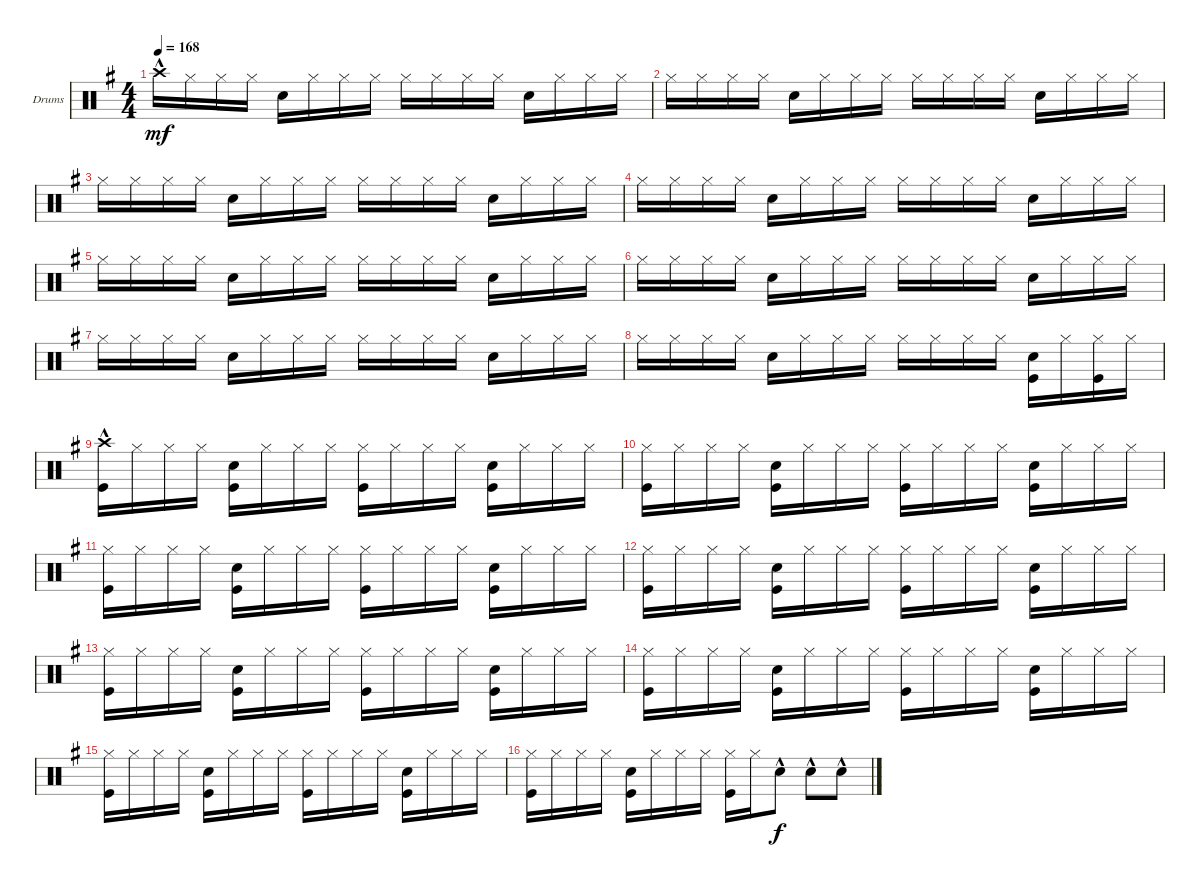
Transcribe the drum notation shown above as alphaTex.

\defaultSystemsLayout 4
\bracketExtendMode groupsimilarinstruments
\firstSystemTrackNameOrientation horizontal
\otherSystemsTrackNameOrientation horizontal
\track ("Drumkit" "Drums") {instrument percussion}
\staff {score}
\articulation defaults
\ts (4 4)
\scale
0.325926
\tempo 168
\accidentals auto
\clef neutral
\ottava regular
\simile none
\ks eminor "Crash high (hit)"{hac}.16{dy mf} "Hi-Hat (closed)".16 "Hi-Hat (closed)".16 "Hi-Hat (closed)".16 "Snare (hit) 2".16 "Hi-Hat (closed)".16 "Hi-Hat (closed)".16 "Hi-Hat (closed)".16 "Hi-Hat (closed)".16 "Hi-Hat (closed)".16 "Hi-Hat (closed)".16 "Hi-Hat (closed)".16 "Snare (hit) 2".16 "Hi-Hat (closed)".16 "Hi-Hat (closed)".16 "Hi-Hat (closed)".16
|
\scale
0.396821 "Hi-Hat (closed)".16 "Hi-Hat (closed)".16 "Hi-Hat (closed)".16 "Hi-Hat (closed)".16 "Snare (hit) 2".16 "Hi-Hat (closed)".16 "Hi-Hat (closed)".16 "Hi-Hat (closed)".16 "Hi-Hat (closed)".16 "Hi-Hat (closed)".16 "Hi-Hat (closed)".16 "Hi-Hat (closed)".16 "Snare (hit) 2".16 "Hi-Hat (closed)".16 "Hi-Hat (closed)".16 "Hi-Hat (closed)".16 |
\scale
0.185363 "Hi-Hat (closed)".16 "Hi-Hat (closed)".16 "Hi-Hat (closed)".16 "Hi-Hat (closed)".16 "Snare (hit) 2".16 "Hi-Hat (closed)".16 "Hi-Hat (closed)".16 "Hi-Hat (closed)".16 "Hi-Hat (closed)".16 "Hi-Hat (closed)".16 "Hi-Hat (closed)".16 "Hi-Hat (closed)".16 "Snare (hit) 2".16 "Hi-Hat (closed)".16 "Hi-Hat (closed)".16 "Hi-Hat (closed)".16 |
\scale
0.0918519 "Hi-Hat (closed)".16 "Hi-Hat (closed)".16 "Hi-Hat (closed)".16 "Hi-Hat (closed)".16 "Snare (hit) 2".16 "Hi-Hat (closed)".16 "Hi-Hat (closed)".16 "Hi-Hat (closed)".16 "Hi-Hat (closed)".16 "Hi-Hat (closed)".16 "Hi-Hat (closed)".16 "Hi-Hat (closed)".16 "Snare (hit) 2".16 "Hi-Hat (closed)".16 "Hi-Hat (closed)".16 "Hi-Hat (closed)".16 |
"Hi-Hat (closed)".16 "Hi-Hat (closed)".16 "Hi-Hat (closed)".16 "Hi-Hat (closed)".16 "Snare (hit) 2".16 "Hi-Hat (closed)".16 "Hi-Hat (closed)".16 "Hi-Hat (closed)".16 "Hi-Hat (closed)".16 "Hi-Hat (closed)".16 "Hi-Hat (closed)".16 "Hi-Hat (closed)".16 "Snare (hit) 2".16 "Hi-Hat (closed)".16 "Hi-Hat (closed)".16 "Hi-Hat (closed)".16 |
"Hi-Hat (closed)".16 "Hi-Hat (closed)".16 "Hi-Hat (closed)".16 "Hi-Hat (closed)".16 "Snare (hit) 2".16 "Hi-Hat (closed)".16 "Hi-Hat (closed)".16 "Hi-Hat (closed)".16 "Hi-Hat (closed)".16 "Hi-Hat (closed)".16 "Hi-Hat (closed)".16 "Hi-Hat (closed)".16 "Snare (hit) 2".16 "Hi-Hat (closed)".16 "Hi-Hat (closed)".16 "Hi-Hat (closed)".16 |
"Hi-Hat (closed)".16 "Hi-Hat (closed)".16 "Hi-Hat (closed)".16 "Hi-Hat (closed)".16 "Snare (hit) 2".16 "Hi-Hat (closed)".16 "Hi-Hat (closed)".16 "Hi-Hat (closed)".16 "Hi-Hat (closed)".16 "Hi-Hat (closed)".16 "Hi-Hat (closed)".16 "Hi-Hat (closed)".16 "Snare (hit) 2".16 "Hi-Hat (closed)".16 "Hi-Hat (closed)".16 "Hi-Hat (closed)".16 |
"Hi-Hat (closed)".16 "Hi-Hat (closed)".16 "Hi-Hat (closed)".16 "Hi-Hat (closed)".16 "Snare (hit) 2".16 "Hi-Hat (closed)".16 "Hi-Hat (closed)".16 "Hi-Hat (closed)".16 "Hi-Hat (closed)".16 "Hi-Hat (closed)".16 "Hi-Hat (closed)".16 "Hi-Hat (closed)".16 ("Snare (hit) 2" "Kick (hit)").16 "Hi-Hat (closed)".16 ("Hi-Hat (closed)" "Kick (hit)").16 "Hi-Hat (closed)".16 |
("Crash high (hit)"{hac} "Kick (hit)").16 "Hi-Hat (closed)".16 "Hi-Hat (closed)".16 "Hi-Hat (closed)".16 ("Snare (hit) 2" "Kick (hit)").16 "Hi-Hat (closed)".16 "Hi-Hat (closed)".16 "Hi-Hat (closed)".16 ("Hi-Hat (closed)" "Kick (hit)").16 "Hi-Hat (closed)".16 "Hi-Hat (closed)".16 "Hi-Hat (closed)".16 ("Snare (hit) 2" "Kick (hit)").16 "Hi-Hat (closed)".16 "Hi-Hat (closed)".16 "Hi-Hat (closed)".16 |
("Hi-Hat (closed)" "Kick (hit)").16 "Hi-Hat (closed)".16 "Hi-Hat (closed)".16 "Hi-Hat (closed)".16 ("Snare (hit) 2" "Kick (hit)").16 "Hi-Hat (closed)".16 "Hi-Hat (closed)".16 "Hi-Hat (closed)".16 ("Hi-Hat (closed)" "Kick (hit)").16 "Hi-Hat (closed)".16 "Hi-Hat (closed)".16 "Hi-Hat (closed)".16 ("Snare (hit) 2" "Kick (hit)").16 "Hi-Hat (closed)".16 "Hi-Hat (closed)".16 "Hi-Hat (closed)".16 |
("Hi-Hat (closed)" "Kick (hit)").16 "Hi-Hat (closed)".16 "Hi-Hat (closed)".16 "Hi-Hat (closed)".16 ("Snare (hit) 2" "Kick (hit)").16 "Hi-Hat (closed)".16 "Hi-Hat (closed)".16 "Hi-Hat (closed)".16 ("Hi-Hat (closed)" "Kick (hit)").16 "Hi-Hat (closed)".16 "Hi-Hat (closed)".16 "Hi-Hat (closed)".16 ("Snare (hit) 2" "Kick (hit)").16 "Hi-Hat (closed)".16 "Hi-Hat (closed)".16 "Hi-Hat (closed)".16 |
("Hi-Hat (closed)" "Kick (hit)").16 "Hi-Hat (closed)".16 "Hi-Hat (closed)".16 "Hi-Hat (closed)".16 ("Snare (hit) 2" "Kick (hit)").16 "Hi-Hat (closed)".16 "Hi-Hat (closed)".16 "Hi-Hat (closed)".16 ("Hi-Hat (closed)" "Kick (hit)").16 "Hi-Hat (closed)".16 "Hi-Hat (closed)".16 "Hi-Hat (closed)".16 ("Snare (hit) 2" "Kick (hit)").16 "Hi-Hat (closed)".16 "Hi-Hat (closed)".16 "Hi-Hat (closed)".16 |
("Hi-Hat (closed)" "Kick (hit)").16 "Hi-Hat (closed)".16 "Hi-Hat (closed)".16 "Hi-Hat (closed)".16 ("Snare (hit) 2" "Kick (hit)").16 "Hi-Hat (closed)".16 "Hi-Hat (closed)".16 "Hi-Hat (closed)".16 ("Hi-Hat (closed)" "Kick (hit)").16 "Hi-Hat (closed)".16 "Hi-Hat (closed)".16 "Hi-Hat (closed)".16 ("Snare (hit) 2" "Kick (hit)").16 "Hi-Hat (closed)".16 "Hi-Hat (closed)".16 "Hi-Hat (closed)".16 |
("Hi-Hat (closed)" "Kick (hit)").16 "Hi-Hat (closed)".16 "Hi-Hat (closed)".16 "Hi-Hat (closed)".16 ("Snare (hit) 2" "Kick (hit)").16 "Hi-Hat (closed)".16 "Hi-Hat (closed)".16 "Hi-Hat (closed)".16 ("Hi-Hat (closed)" "Kick (hit)").16 "Hi-Hat (closed)".16 "Hi-Hat (closed)".16 "Hi-Hat (closed)".16 ("Snare (hit) 2" "Kick (hit)").16 "Hi-Hat (closed)".16 "Hi-Hat (closed)".16 "Hi-Hat (closed)".16 |
("Hi-Hat (closed)" "Kick (hit)").16 "Hi-Hat (closed)".16 "Hi-Hat (closed)".16 "Hi-Hat (closed)".16 ("Snare (hit) 2" "Kick (hit)").16 "Hi-Hat (closed)".16 "Hi-Hat (closed)".16 "Hi-Hat (closed)".16 ("Hi-Hat (closed)" "Kick (hit)").16 "Hi-Hat (closed)".16 "Hi-Hat (closed)".16 "Hi-Hat (closed)".16 ("Snare (hit) 2" "Kick (hit)").16 "Hi-Hat (closed)".16 "Hi-Hat (closed)".16 "Hi-Hat (closed)".16 |
("Hi-Hat (closed)" "Kick (hit)").16 "Hi-Hat (closed)".16 "Hi-Hat (closed)".16 "Hi-Hat (closed)".16 ("Snare (hit) 2" "Kick (hit)").16 "Hi-Hat (closed)".16 "Hi-Hat (closed)".16 "Hi-Hat (closed)".16 ("Hi-Hat (closed)" "Kick (hit)").16 "Hi-Hat (closed)".16 "Snare (hit) 2"{hac}.8{dy f} "Snare (hit) 2"{hac}.8 "Snare (hit) 2"{hac}.8
